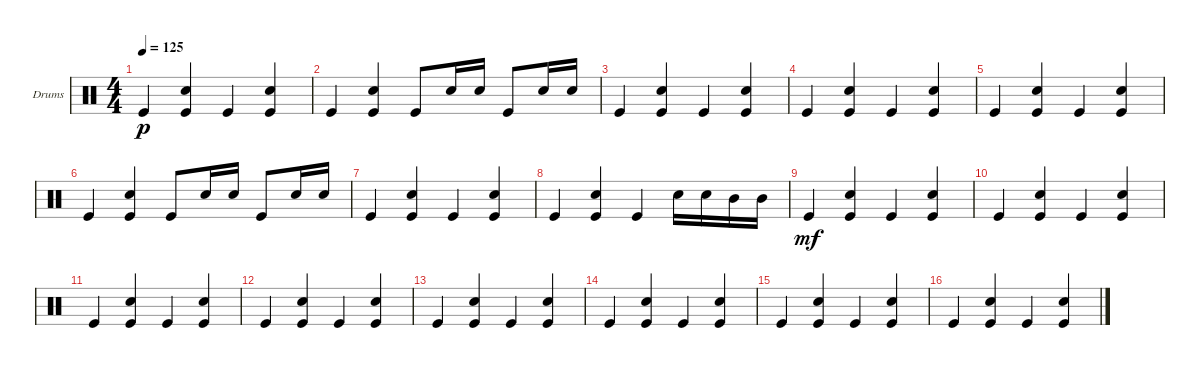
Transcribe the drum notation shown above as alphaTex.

\bracketExtendMode groupsimilarinstruments
\firstSystemTrackNameOrientation horizontal
\otherSystemsTrackNameOrientation horizontal
\track ("Drumkit" "Drums") {instrument percussion}
\staff {score}
\articulation defaults
\ts (4 4)
\tempo 125
\clef neutral
\ks c "Kick (hit)".4{dy p}
("Snare (hit) 2" "Kick (hit)").4 "Kick (hit)".4 ("Snare (hit) 2" "Kick (hit)").4 |
"Kick (hit)".4 ("Snare (hit) 2" "Kick (hit)").4 "Kick (hit)".8 "Snare (hit) 2".16 "Snare (hit) 2".16 "Kick (hit)".8 "Snare (hit) 2".16 "Snare (hit) 2".16 |
"Kick (hit)".4 ("Snare (hit) 2" "Kick (hit)").4 "Kick (hit)".4 ("Snare (hit) 2" "Kick (hit)").4 |
"Kick (hit)".4 ("Snare (hit) 2" "Kick (hit)").4 "Kick (hit)".4 ("Snare (hit) 2" "Kick (hit)").4 |
"Kick (hit)".4 ("Snare (hit) 2" "Kick (hit)").4 "Kick (hit)".4 ("Snare (hit) 2" "Kick (hit)").4 |
"Kick (hit)".4 ("Snare (hit) 2" "Kick (hit)").4 "Kick (hit)".8 "Snare (hit) 2".16 "Snare (hit) 2".16 "Kick (hit)".8 "Snare (hit) 2".16 "Snare (hit) 2".16 |
"Kick (hit)".4 ("Snare (hit) 2" "Kick (hit)").4 "Kick (hit)".4 ("Snare (hit) 2" "Kick (hit)").4 |
"Kick (hit)".4 ("Snare (hit) 2" "Kick (hit)").4 "Kick (hit)".4 "Snare (hit) 2".16 "Snare (hit) 2".16 "Mid Tom (hit)".16 "Mid Tom (hit)".16 |
"Kick (hit)".4{dy mf} ("Snare (hit) 2" "Kick (hit)").4 "Kick (hit)".4 ("Snare (hit) 2" "Kick (hit)").4 |
"Kick (hit)".4 ("Snare (hit) 2" "Kick (hit)").4 "Kick (hit)".4 ("Snare (hit) 2" "Kick (hit)").4 |
"Kick (hit)".4 ("Snare (hit) 2" "Kick (hit)").4 "Kick (hit)".4 ("Snare (hit) 2" "Kick (hit)").4 |
"Kick (hit)".4 ("Snare (hit) 2" "Kick (hit)").4 "Kick (hit)".4 ("Snare (hit) 2" "Kick (hit)").4 |
"Kick (hit)".4 ("Snare (hit) 2" "Kick (hit)").4 "Kick (hit)".4 ("Snare (hit) 2" "Kick (hit)").4 |
"Kick (hit)".4 ("Snare (hit) 2" "Kick (hit)").4 "Kick (hit)".4 ("Snare (hit) 2" "Kick (hit)").4 |
"Kick (hit)".4 ("Snare (hit) 2" "Kick (hit)").4 "Kick (hit)".4 ("Snare (hit) 2" "Kick (hit)").4 |
"Kick (hit)".4 ("Snare (hit) 2" "Kick (hit)").4 "Kick (hit)".4 ("Snare (hit) 2" "Kick (hit)").4
